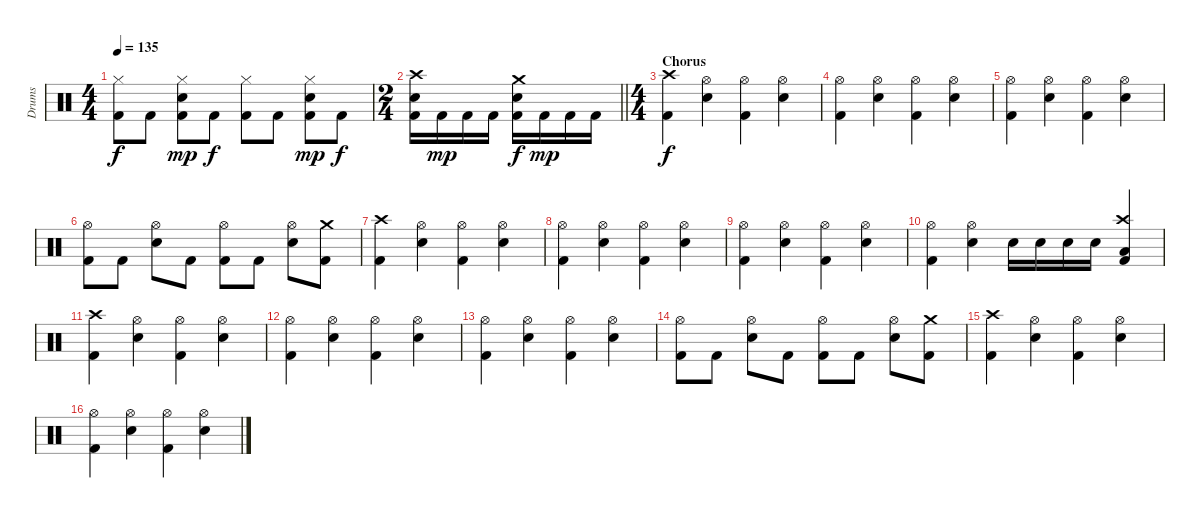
\track ("Drums" "Drums") {instrument percussion}
\staff {score}
\articulation defaults
\ts (4 4)
\tempo 135
\clef neutral
\ks c
("Hi-Hat (closed)" "Kick (hit) 2").8{dy f} "Kick (hit) 2".8 ("Hi-Hat (closed)" "Snare (hit) 2" "Kick (hit) 2").8{dy mp} "Kick (hit) 2".8{dy f} ("Hi-Hat (closed)" "Kick (hit) 2").8 "Kick (hit) 2".8 ("Hi-Hat (closed)" "Snare (hit) 2" "Kick (hit) 2").8{dy mp} "Kick (hit) 2".8{dy f} |
\ts (2 4)
\barLineRight lightlight
("Crash high (hit)" "Snare (hit) 2" "Kick (hit) 2").16 "Kick (hit) 2".16{dy mp} "Kick (hit) 2".16 "Kick (hit) 2".16 ("Crash medium (hit)" "Snare (hit) 2" "Kick (hit) 2").16{dy f} "Kick (hit) 2".16{dy mp} "Kick (hit) 2".16 "Kick (hit) 2".16 |
\ts (4 4)
\section ("" "Chorus")
("Crash high (hit)" "Kick (hit) 2").4{dy f} ("Hi-Hat (open)" "Snare (hit) 2").4 ("Hi-Hat (open)" "Kick (hit) 2").4 ("Hi-Hat (open)" "Snare (hit) 2").4 |
("Hi-Hat (open)" "Kick (hit) 2").4 ("Hi-Hat (open)" "Snare (hit) 2").4 ("Hi-Hat (open)" "Kick (hit) 2").4 ("Hi-Hat (open)" "Snare (hit) 2").4 |
("Hi-Hat (open)" "Kick (hit) 2").4 ("Hi-Hat (open)" "Snare (hit) 2").4 ("Hi-Hat (open)" "Kick (hit) 2").4 ("Hi-Hat (open)" "Snare (hit) 2").4 |
("Hi-Hat (open)" "Kick (hit) 2").8 "Kick (hit) 2".8 ("Hi-Hat (open)" "Snare (hit) 2").8 "Kick (hit) 2".8 ("Hi-Hat (open)" "Kick (hit) 2").8 "Kick (hit) 2".8 ("Hi-Hat (open)" "Snare (hit) 2").8 ("Crash medium (hit)" "Kick (hit) 2").8 |
("Crash high (hit)" "Kick (hit) 2").4 ("Hi-Hat (open)" "Snare (hit) 2").4 ("Hi-Hat (open)" "Kick (hit) 2").4 ("Hi-Hat (open)" "Snare (hit) 2").4 |
("Hi-Hat (open)" "Kick (hit) 2").4 ("Hi-Hat (open)" "Snare (hit) 2").4 ("Hi-Hat (open)" "Kick (hit) 2").4 ("Hi-Hat (open)" "Snare (hit) 2").4 |
("Hi-Hat (open)" "Kick (hit) 2").4 ("Hi-Hat (open)" "Snare (hit) 2").4 ("Hi-Hat (open)" "Kick (hit) 2").4 ("Hi-Hat (open)" "Snare (hit) 2").4 |
("Hi-Hat (open)" "Kick (hit) 2").4 ("Hi-Hat (open)" "Snare (hit) 2").4 "Snare (hit) 2".16 "Snare (hit) 2".16 "Snare (hit) 2".16 "Snare (hit) 2".16 ("Crash high (hit)" "Low Tom (hit)" "Kick (hit) 2").4 |
("Crash high (hit)" "Kick (hit) 2").4 ("Hi-Hat (open)" "Snare (hit) 2").4 ("Hi-Hat (open)" "Kick (hit) 2").4 ("Hi-Hat (open)" "Snare (hit) 2").4 |
("Hi-Hat (open)" "Kick (hit) 2").4 ("Hi-Hat (open)" "Snare (hit) 2").4 ("Hi-Hat (open)" "Kick (hit) 2").4 ("Hi-Hat (open)" "Snare (hit) 2").4 |
("Hi-Hat (open)" "Kick (hit) 2").4 ("Hi-Hat (open)" "Snare (hit) 2").4 ("Hi-Hat (open)" "Kick (hit) 2").4 ("Hi-Hat (open)" "Snare (hit) 2").4 |
("Hi-Hat (open)" "Kick (hit) 2").8 "Kick (hit) 2".8 ("Hi-Hat (open)" "Snare (hit) 2").8 "Kick (hit) 2".8 ("Hi-Hat (open)" "Kick (hit) 2").8 "Kick (hit) 2".8 ("Hi-Hat (open)" "Snare (hit) 2").8 ("Crash medium (hit)" "Kick (hit) 2").8 |
("Crash high (hit)" "Kick (hit) 2").4 ("Hi-Hat (open)" "Snare (hit) 2").4 ("Hi-Hat (open)" "Kick (hit) 2").4 ("Hi-Hat (open)" "Snare (hit) 2").4 |
("Hi-Hat (open)" "Kick (hit) 2").4 ("Hi-Hat (open)" "Snare (hit) 2").4 ("Hi-Hat (open)" "Kick (hit) 2").4 ("Hi-Hat (open)" "Snare (hit) 2").4
